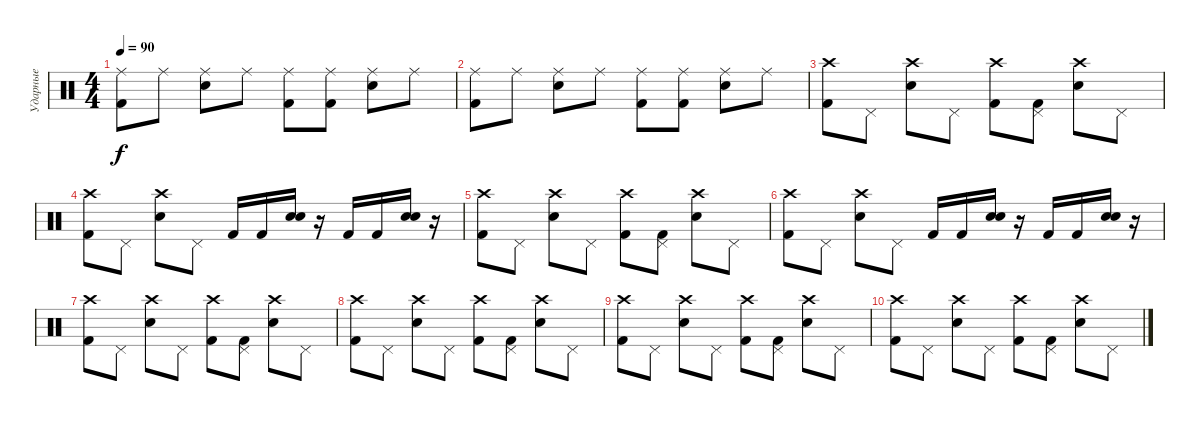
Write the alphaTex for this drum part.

\track ("Ударные" "Ударные") {instrument percussion}
\staff {score}
\articulation defaults
\ts (4 4)
\tempo 90
\clef neutral
\ks c
("Ride (middle)" "Kick (hit) 2").8{dy f} "Ride (middle)".8 ("Ride (middle)" "Snare (hit) 2").8 "Ride (middle)".8 ("Ride (middle)" "Kick (hit) 2").8 ("Ride (middle)" "Kick (hit) 2").8 ("Ride (middle)" "Snare (hit) 2").8 "Ride (middle)".8 |
("Ride (middle)" "Kick (hit) 2").8 "Ride (middle)".8 ("Ride (middle)" "Snare (hit) 2").8 "Ride (middle)".8 ("Ride (middle)" "Kick (hit) 2").8 ("Ride (middle)" "Kick (hit) 2").8 ("Ride (middle)" "Snare (hit) 2").8 "Ride (middle)".8 |
("Crash high (hit)" "Kick (hit) 2").8 "Pedal Hi-Hat (hit)".8 ("Crash high (hit)" "Snare (hit) 2").8 "Pedal Hi-Hat (hit)".8 ("Crash high (hit)" "Kick (hit) 2").8 ("Pedal Hi-Hat (hit)" "Kick (hit) 2").8 ("Crash high (hit)" "Snare (hit) 2").8 "Pedal Hi-Hat (hit)".8 |
("Crash high (hit)" "Kick (hit) 2").8 "Pedal Hi-Hat (hit)".8 ("Crash high (hit)" "Snare (hit) 2").8 "Pedal Hi-Hat (hit)".8 "Kick (hit) 2".16 "Kick (hit) 2".16 ("Electric Snare (hit)" "Snare (hit) 2").16 r.16 "Kick (hit) 2".16 "Kick (hit) 2".16 ("Electric Snare (hit)" "Snare (hit) 2").16 r.16 |
("Crash high (hit)" "Kick (hit) 2").8 "Pedal Hi-Hat (hit)".8 ("Crash high (hit)" "Snare (hit) 2").8 "Pedal Hi-Hat (hit)".8 ("Crash high (hit)" "Kick (hit) 2").8 ("Pedal Hi-Hat (hit)" "Kick (hit) 2").8 ("Crash high (hit)" "Snare (hit) 2").8 "Pedal Hi-Hat (hit)".8 |
("Crash high (hit)" "Kick (hit) 2").8 "Pedal Hi-Hat (hit)".8 ("Crash high (hit)" "Snare (hit) 2").8 "Pedal Hi-Hat (hit)".8 "Kick (hit) 2".16 "Kick (hit) 2".16 ("Electric Snare (hit)" "Snare (hit) 2").16 r.16 "Kick (hit) 2".16 "Kick (hit) 2".16 ("Electric Snare (hit)" "Snare (hit) 2").16 r.16 |
("Crash high (hit)" "Kick (hit) 2").8 "Pedal Hi-Hat (hit)".8 ("Crash high (hit)" "Snare (hit) 2").8 "Pedal Hi-Hat (hit)".8 ("Crash high (hit)" "Kick (hit) 2").8 ("Pedal Hi-Hat (hit)" "Kick (hit) 2").8 ("Crash high (hit)" "Snare (hit) 2").8 "Pedal Hi-Hat (hit)".8 |
("Crash high (hit)" "Kick (hit) 2").8 "Pedal Hi-Hat (hit)".8 ("Crash high (hit)" "Snare (hit) 2").8 "Pedal Hi-Hat (hit)".8 ("Crash high (hit)" "Kick (hit) 2").8 ("Pedal Hi-Hat (hit)" "Kick (hit) 2").8 ("Crash high (hit)" "Snare (hit) 2").8 "Pedal Hi-Hat (hit)".8 |
("Crash high (hit)" "Kick (hit) 2").8 "Pedal Hi-Hat (hit)".8 ("Crash high (hit)" "Snare (hit) 2").8 "Pedal Hi-Hat (hit)".8 ("Crash high (hit)" "Kick (hit) 2").8 ("Pedal Hi-Hat (hit)" "Kick (hit) 2").8 ("Crash high (hit)" "Snare (hit) 2").8 "Pedal Hi-Hat (hit)".8 |
("Crash high (hit)" "Kick (hit) 2").8 "Pedal Hi-Hat (hit)".8 ("Crash high (hit)" "Snare (hit) 2").8 "Pedal Hi-Hat (hit)".8 ("Crash high (hit)" "Kick (hit) 2").8 ("Pedal Hi-Hat (hit)" "Kick (hit) 2").8 ("Crash high (hit)" "Snare (hit) 2").8 "Pedal Hi-Hat (hit)".8
